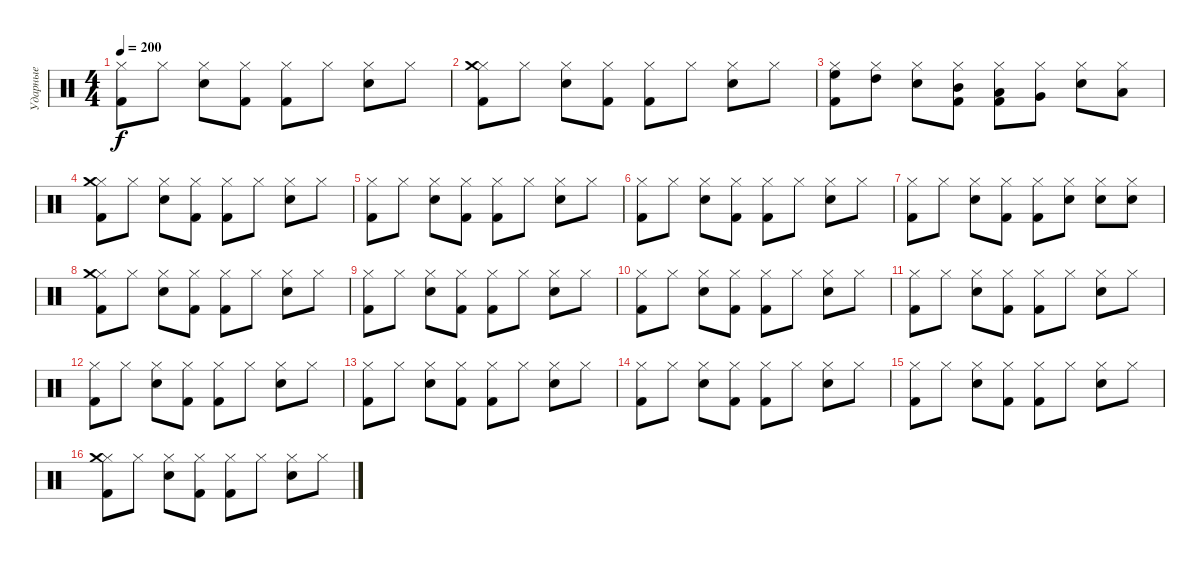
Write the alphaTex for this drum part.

\track ("Ударные" "Ударные") {instrument percussion}
\staff {score}
\articulation defaults
\ts (4 4)
\tempo 200
\clef neutral
\ks c
("Kick (hit) 2" "Hi-Hat (closed)").8{dy f} "Hi-Hat (closed)".8 ("Electric Snare (hit)" "Hi-Hat (closed)").8 ("Kick (hit) 2" "Hi-Hat (closed)").8 ("Kick (hit) 2" "Hi-Hat (closed)").8 "Hi-Hat (closed)".8 ("Electric Snare (hit)" "Hi-Hat (closed)").8 "Hi-Hat (closed)".8 |
("Kick (hit) 2" "Hi-Hat (closed)" "Crash medium (hit)").8 "Hi-Hat (closed)".8 ("Electric Snare (hit)" "Hi-Hat (closed)").8 ("Kick (hit) 2" "Hi-Hat (closed)").8 ("Kick (hit) 2" "Hi-Hat (closed)").8 "Hi-Hat (closed)".8 ("Electric Snare (hit)" "Hi-Hat (closed)").8 "Hi-Hat (closed)".8 |
("Kick (hit) 2" "Hi-Hat (closed)" "High Floor Tom (hit)").8 ("Hi-Hat (closed)" "High Tom (hit)").8 ("Electric Snare (hit)" "Hi-Hat (closed)").8 ("Kick (hit) 2" "Hi-Hat (closed)" "Mid Tom (hit)").8 ("Kick (hit) 2" "Hi-Hat (closed)" "Low Tom (hit)").8 ("Hi-Hat (closed)" "Very Low Tom (hit)").8 ("Electric Snare (hit)" "Hi-Hat (closed)").8 ("Hi-Hat (closed)" "Low Floor Tom (hit)").8 |
("Kick (hit) 2" "Hi-Hat (closed)" "Crash medium (hit)").8 "Hi-Hat (closed)".8 ("Electric Snare (hit)" "Hi-Hat (closed)").8 ("Kick (hit) 2" "Hi-Hat (closed)").8 ("Kick (hit) 2" "Hi-Hat (closed)").8 "Hi-Hat (closed)".8 ("Electric Snare (hit)" "Hi-Hat (closed)").8 "Hi-Hat (closed)".8 |
("Kick (hit) 2" "Hi-Hat (closed)").8 "Hi-Hat (closed)".8 ("Electric Snare (hit)" "Hi-Hat (closed)").8 ("Kick (hit) 2" "Hi-Hat (closed)").8 ("Kick (hit) 2" "Hi-Hat (closed)").8 "Hi-Hat (closed)".8 ("Electric Snare (hit)" "Hi-Hat (closed)").8 "Hi-Hat (closed)".8 |
("Kick (hit) 2" "Hi-Hat (closed)").8 "Hi-Hat (closed)".8 ("Electric Snare (hit)" "Hi-Hat (closed)").8 ("Kick (hit) 2" "Hi-Hat (closed)").8 ("Kick (hit) 2" "Hi-Hat (closed)").8 "Hi-Hat (closed)".8 ("Electric Snare (hit)" "Hi-Hat (closed)").8 "Hi-Hat (closed)".8 |
("Kick (hit) 2" "Hi-Hat (closed)").8 "Hi-Hat (closed)".8 ("Electric Snare (hit)" "Hi-Hat (closed)").8 ("Kick (hit) 2" "Hi-Hat (closed)").8 ("Kick (hit) 2" "Hi-Hat (closed)").8 ("Hi-Hat (closed)" "Electric Snare (hit)").8 ("Electric Snare (hit)" "Hi-Hat (closed)").8 ("Hi-Hat (closed)" "Electric Snare (hit)").8 |
("Kick (hit) 2" "Hi-Hat (closed)" "Crash medium (hit)").8 "Hi-Hat (closed)".8 ("Electric Snare (hit)" "Hi-Hat (closed)").8 ("Kick (hit) 2" "Hi-Hat (closed)").8 ("Kick (hit) 2" "Hi-Hat (closed)").8 "Hi-Hat (closed)".8 ("Electric Snare (hit)" "Hi-Hat (closed)").8 "Hi-Hat (closed)".8 |
("Kick (hit) 2" "Hi-Hat (closed)").8 "Hi-Hat (closed)".8 ("Electric Snare (hit)" "Hi-Hat (closed)").8 ("Kick (hit) 2" "Hi-Hat (closed)").8 ("Kick (hit) 2" "Hi-Hat (closed)").8 "Hi-Hat (closed)".8 ("Electric Snare (hit)" "Hi-Hat (closed)").8 "Hi-Hat (closed)".8 |
("Kick (hit) 2" "Hi-Hat (closed)").8 "Hi-Hat (closed)".8 ("Electric Snare (hit)" "Hi-Hat (closed)").8 ("Kick (hit) 2" "Hi-Hat (closed)").8 ("Kick (hit) 2" "Hi-Hat (closed)").8 "Hi-Hat (closed)".8 ("Electric Snare (hit)" "Hi-Hat (closed)").8 "Hi-Hat (closed)".8 |
("Kick (hit) 2" "Hi-Hat (closed)").8 "Hi-Hat (closed)".8 ("Electric Snare (hit)" "Hi-Hat (closed)").8 ("Kick (hit) 2" "Hi-Hat (closed)").8 ("Kick (hit) 2" "Hi-Hat (closed)").8 "Hi-Hat (closed)".8 ("Electric Snare (hit)" "Hi-Hat (closed)").8 "Hi-Hat (closed)".8 |
("Kick (hit) 2" "Hi-Hat (closed)").8 "Hi-Hat (closed)".8 ("Electric Snare (hit)" "Hi-Hat (closed)").8 ("Kick (hit) 2" "Hi-Hat (closed)").8 ("Kick (hit) 2" "Hi-Hat (closed)").8 "Hi-Hat (closed)".8 ("Electric Snare (hit)" "Hi-Hat (closed)").8 "Hi-Hat (closed)".8 |
("Kick (hit) 2" "Hi-Hat (closed)").8 "Hi-Hat (closed)".8 ("Electric Snare (hit)" "Hi-Hat (closed)").8 ("Kick (hit) 2" "Hi-Hat (closed)").8 ("Kick (hit) 2" "Hi-Hat (closed)").8 "Hi-Hat (closed)".8 ("Electric Snare (hit)" "Hi-Hat (closed)").8 "Hi-Hat (closed)".8 |
("Kick (hit) 2" "Hi-Hat (closed)").8 "Hi-Hat (closed)".8 ("Electric Snare (hit)" "Hi-Hat (closed)").8 ("Kick (hit) 2" "Hi-Hat (closed)").8 ("Kick (hit) 2" "Hi-Hat (closed)").8 "Hi-Hat (closed)".8 ("Electric Snare (hit)" "Hi-Hat (closed)").8 "Hi-Hat (closed)".8 |
("Kick (hit) 2" "Hi-Hat (closed)").8 "Hi-Hat (closed)".8 ("Electric Snare (hit)" "Hi-Hat (closed)").8 ("Kick (hit) 2" "Hi-Hat (closed)").8 ("Kick (hit) 2" "Hi-Hat (closed)").8 "Hi-Hat (closed)".8 ("Electric Snare (hit)" "Hi-Hat (closed)").8 "Hi-Hat (closed)".8 |
("Kick (hit) 2" "Hi-Hat (closed)" "Crash medium (hit)").8 "Hi-Hat (closed)".8 ("Electric Snare (hit)" "Hi-Hat (closed)").8 ("Kick (hit) 2" "Hi-Hat (closed)").8 ("Kick (hit) 2" "Hi-Hat (closed)").8 "Hi-Hat (closed)".8 ("Electric Snare (hit)" "Hi-Hat (closed)").8 "Hi-Hat (closed)".8
